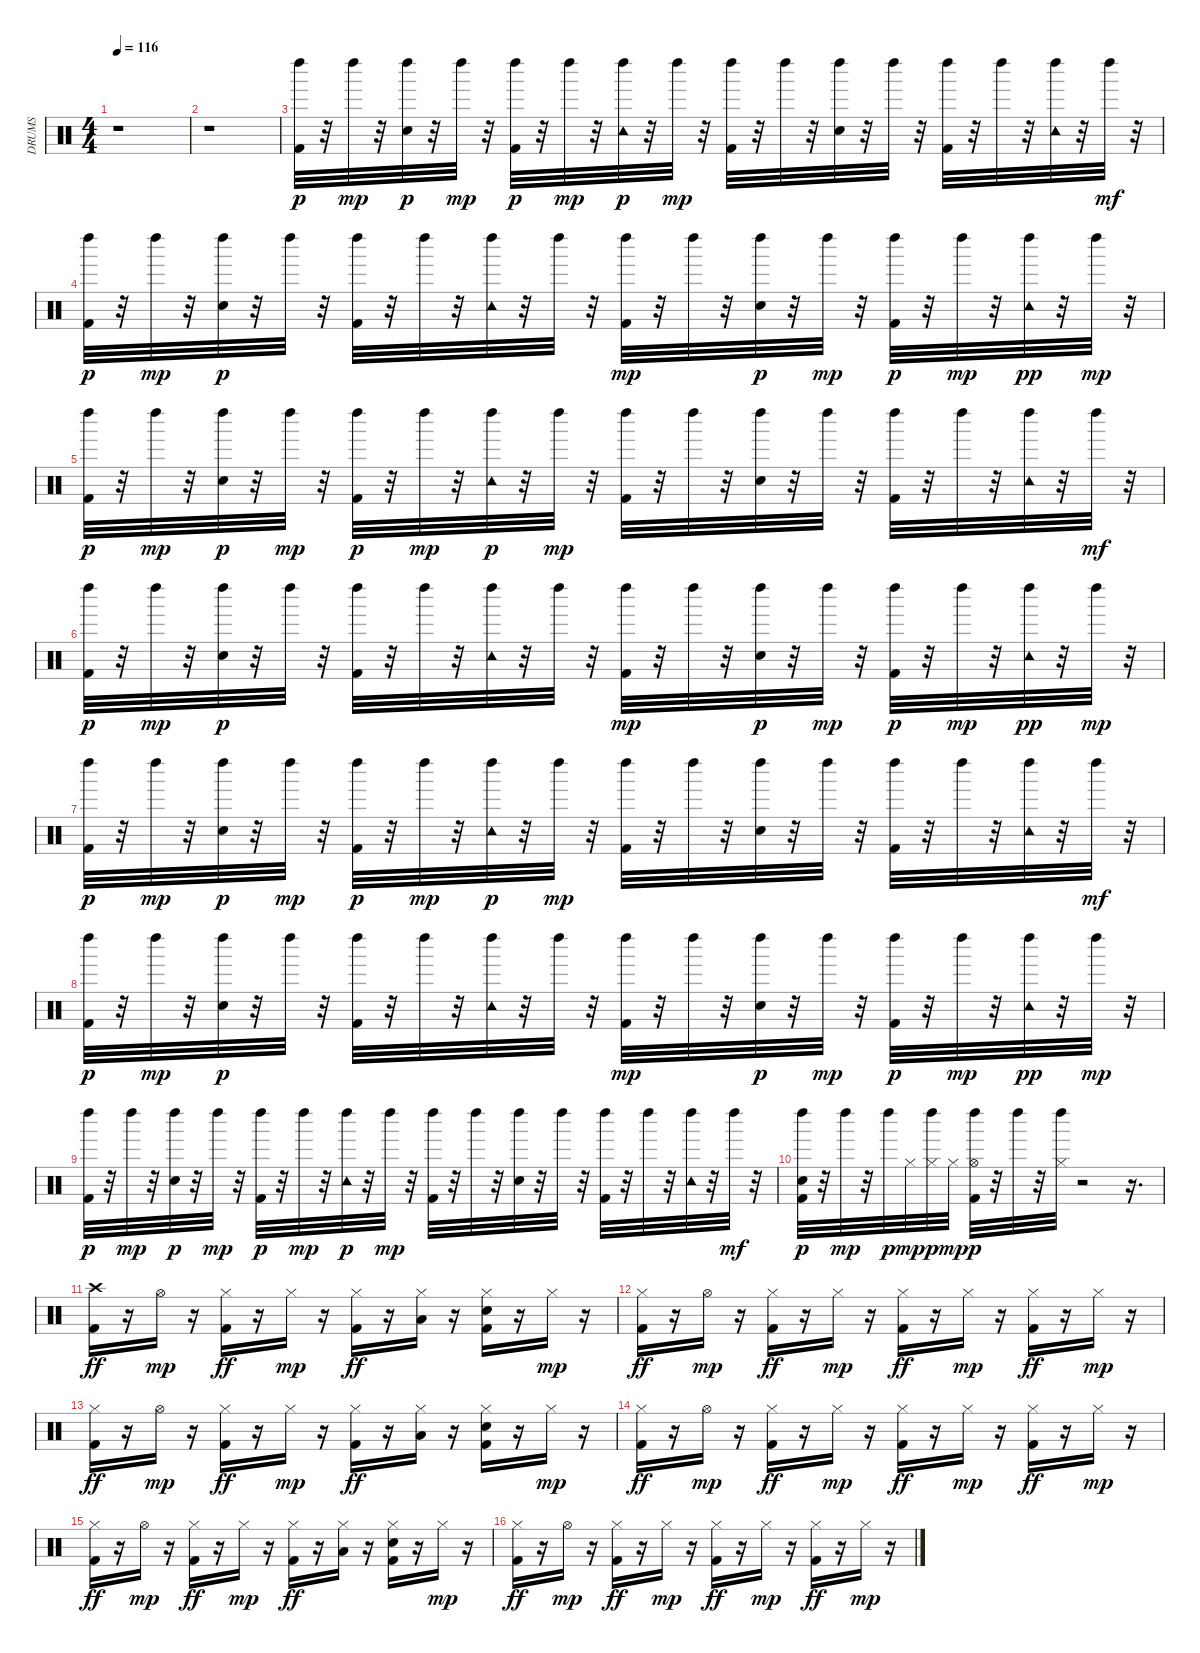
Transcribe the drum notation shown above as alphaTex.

\track ("DRUMS   " "DRUMS   ") {instrument percussion}
\staff {score}
\articulation defaults
\ts (4 4)
\tempo 116
\clef neutral
\ks c
r.1{dy p} |
r.1 |
("Kick (hit) 2" "Left Maraca (hit)").32 r.32 "Left Maraca (hit)".32{dy mp} r.32 ("Snare (hit) 2" "Left Maraca (hit)").32{dy p} r.32 "Left Maraca (hit)".32{dy mp} r.32 ("Kick (hit) 2" "Left Maraca (hit)").32{dy p} r.32 "Left Maraca (hit)".32{dy mp} r.32 ("Tambourine (hit)" "Left Maraca (hit)").32{dy p} r.32 "Left Maraca (hit)".32{dy mp} r.32 ("Kick (hit) 2" "Left Maraca (hit)").32 r.32 "Left Maraca (hit)".32 r.32 ("Snare (hit) 2" "Left Maraca (hit)").32 r.32 "Left Maraca (hit)".32 r.32 ("Kick (hit) 2" "Left Maraca (hit)").32 r.32 "Left Maraca (hit)".32 r.32 ("Tambourine (hit)" "Left Maraca (hit)").32 r.32 "Left Maraca (hit)".32{dy mf} r.32 |
("Kick (hit) 2" "Left Maraca (hit)").32{dy p} r.32 "Left Maraca (hit)".32{dy mp} r.32 ("Snare (hit) 2" "Left Maraca (hit)").32{dy p} r.32 "Left Maraca (hit)".32 r.32 ("Kick (hit) 2" "Left Maraca (hit)").32 r.32 "Left Maraca (hit)".32 r.32 ("Tambourine (hit)" "Left Maraca (hit)").32 r.32 "Left Maraca (hit)".32 r.32 ("Kick (hit) 2" "Left Maraca (hit)").32{dy mp} r.32 "Left Maraca (hit)".32 r.32 ("Snare (hit) 2" "Left Maraca (hit)").32{dy p} r.32 "Left Maraca (hit)".32{dy mp} r.32 ("Kick (hit) 2" "Left Maraca (hit)").32{dy p} r.32 "Left Maraca (hit)".32{dy mp} r.32 ("Tambourine (hit)" "Left Maraca (hit)").32{dy pp} r.32 "Left Maraca (hit)".32{dy mp} r.32 |
("Kick (hit) 2" "Left Maraca (hit)").32{dy p} r.32 "Left Maraca (hit)".32{dy mp} r.32 ("Snare (hit) 2" "Left Maraca (hit)").32{dy p} r.32 "Left Maraca (hit)".32{dy mp} r.32 ("Kick (hit) 2" "Left Maraca (hit)").32{dy p} r.32 "Left Maraca (hit)".32{dy mp} r.32 ("Tambourine (hit)" "Left Maraca (hit)").32{dy p} r.32 "Left Maraca (hit)".32{dy mp} r.32 ("Kick (hit) 2" "Left Maraca (hit)").32 r.32 "Left Maraca (hit)".32 r.32 ("Snare (hit) 2" "Left Maraca (hit)").32 r.32 "Left Maraca (hit)".32 r.32 ("Kick (hit) 2" "Left Maraca (hit)").32 r.32 "Left Maraca (hit)".32 r.32 ("Tambourine (hit)" "Left Maraca (hit)").32 r.32 "Left Maraca (hit)".32{dy mf} r.32 |
("Kick (hit) 2" "Left Maraca (hit)").32{dy p} r.32 "Left Maraca (hit)".32{dy mp} r.32 ("Snare (hit) 2" "Left Maraca (hit)").32{dy p} r.32 "Left Maraca (hit)".32 r.32 ("Kick (hit) 2" "Left Maraca (hit)").32 r.32 "Left Maraca (hit)".32 r.32 ("Tambourine (hit)" "Left Maraca (hit)").32 r.32 "Left Maraca (hit)".32 r.32 ("Kick (hit) 2" "Left Maraca (hit)").32{dy mp} r.32 "Left Maraca (hit)".32 r.32 ("Snare (hit) 2" "Left Maraca (hit)").32{dy p} r.32 "Left Maraca (hit)".32{dy mp} r.32 ("Kick (hit) 2" "Left Maraca (hit)").32{dy p} r.32 "Left Maraca (hit)".32{dy mp} r.32 ("Tambourine (hit)" "Left Maraca (hit)").32{dy pp} r.32 "Left Maraca (hit)".32{dy mp} r.32 |
("Kick (hit) 2" "Left Maraca (hit)").32{dy p} r.32 "Left Maraca (hit)".32{dy mp} r.32 ("Snare (hit) 2" "Left Maraca (hit)").32{dy p} r.32 "Left Maraca (hit)".32{dy mp} r.32 ("Kick (hit) 2" "Left Maraca (hit)").32{dy p} r.32 "Left Maraca (hit)".32{dy mp} r.32 ("Tambourine (hit)" "Left Maraca (hit)").32{dy p} r.32 "Left Maraca (hit)".32{dy mp} r.32 ("Kick (hit) 2" "Left Maraca (hit)").32 r.32 "Left Maraca (hit)".32 r.32 ("Snare (hit) 2" "Left Maraca (hit)").32 r.32 "Left Maraca (hit)".32 r.32 ("Kick (hit) 2" "Left Maraca (hit)").32 r.32 "Left Maraca (hit)".32 r.32 ("Tambourine (hit)" "Left Maraca (hit)").32 r.32 "Left Maraca (hit)".32{dy mf} r.32 |
("Kick (hit) 2" "Left Maraca (hit)").32{dy p} r.32 "Left Maraca (hit)".32{dy mp} r.32 ("Snare (hit) 2" "Left Maraca (hit)").32{dy p} r.32 "Left Maraca (hit)".32 r.32 ("Kick (hit) 2" "Left Maraca (hit)").32 r.32 "Left Maraca (hit)".32 r.32 ("Tambourine (hit)" "Left Maraca (hit)").32 r.32 "Left Maraca (hit)".32 r.32 ("Kick (hit) 2" "Left Maraca (hit)").32{dy mp} r.32 "Left Maraca (hit)".32 r.32 ("Snare (hit) 2" "Left Maraca (hit)").32{dy p} r.32 "Left Maraca (hit)".32{dy mp} r.32 ("Kick (hit) 2" "Left Maraca (hit)").32{dy p} r.32 "Left Maraca (hit)".32{dy mp} r.32 ("Tambourine (hit)" "Left Maraca (hit)").32{dy pp} r.32 "Left Maraca (hit)".32{dy mp} r.32 |
("Kick (hit) 2" "Left Maraca (hit)").32{dy p} r.32 "Left Maraca (hit)".32{dy mp} r.32 ("Snare (hit) 2" "Left Maraca (hit)").32{dy p} r.32 "Left Maraca (hit)".32{dy mp} r.32 ("Kick (hit) 2" "Left Maraca (hit)").32{dy p} r.32 "Left Maraca (hit)".32{dy mp} r.32 ("Tambourine (hit)" "Left Maraca (hit)").32{dy p} r.32 "Left Maraca (hit)".32{dy mp} r.32 ("Kick (hit) 2" "Left Maraca (hit)").32 r.32 "Left Maraca (hit)".32 r.32 ("Snare (hit) 2" "Left Maraca (hit)").32 r.32 "Left Maraca (hit)".32 r.32 ("Kick (hit) 2" "Left Maraca (hit)").32 r.32 "Left Maraca (hit)".32 r.32 ("Tambourine (hit)" "Left Maraca (hit)").32 r.32 "Left Maraca (hit)".32{dy mf} r.32 |
("Kick (hit) 2" "Snare (hit) 2" "Left Maraca (hit)").32{dy p} r.32 "Left Maraca (hit)".32{dy mp} r.32 "Left Maraca (hit)".32{dy p} "Hi-Hat (closed)".32{dy mp} ("Hi-Hat (closed)" "Left Maraca (hit)").32{dy p} "Hi-Hat (closed)".32{dy mp} ("Kick (hit) 2" "Hi-Hat (open)" "Left Maraca (hit)").32{dy p} r.32 "Left Maraca (hit)".32 r.32 ("Hi-Hat (closed)" "Left Maraca (hit)").32 r.2 r.16{d} |
("Kick (hit) 2" "Crash high (hit)").16{dy ff} r.16 "Hi-Hat (open)".16{dy mp} r.16 ("Hi-Hat (closed)" "Kick (hit) 2").16{dy ff} r.16 "Hi-Hat (closed)".16{dy mp} r.16 ("Hi-Hat (closed)" "Kick (hit) 2").16{dy ff} r.16 ("Hi-Hat (closed)" "Low Tom (hit)").16 r.16 ("Electric Snare (hit)" "Hi-Hat (closed)" "Kick (hit) 2").16 r.16 "Hi-Hat (closed)".16{dy mp} r.16 |
("Hi-Hat (closed)" "Kick (hit) 2").16{dy ff} r.16 "Hi-Hat (open)".16{dy mp} r.16 ("Hi-Hat (closed)" "Kick (hit) 2").16{dy ff} r.16 "Hi-Hat (closed)".16{dy mp} r.16 ("Hi-Hat (closed)" "Kick (hit) 2").16{dy ff} r.16 "Hi-Hat (closed)".16{dy mp} r.16 ("Hi-Hat (closed)" "Kick (hit) 2").16{dy ff} r.16 "Hi-Hat (closed)".16{dy mp} r.16 |
("Hi-Hat (closed)" "Kick (hit) 2").16{dy ff} r.16 "Hi-Hat (open)".16{dy mp} r.16 ("Hi-Hat (closed)" "Kick (hit) 2").16{dy ff} r.16 "Hi-Hat (closed)".16{dy mp} r.16 ("Hi-Hat (closed)" "Kick (hit) 2").16{dy ff} r.16 ("Hi-Hat (closed)" "Low Tom (hit)").16 r.16 ("Electric Snare (hit)" "Hi-Hat (closed)" "Kick (hit) 2").16 r.16 "Hi-Hat (closed)".16{dy mp} r.16 |
("Hi-Hat (closed)" "Kick (hit) 2").16{dy ff} r.16 "Hi-Hat (open)".16{dy mp} r.16 ("Hi-Hat (closed)" "Kick (hit) 2").16{dy ff} r.16 "Hi-Hat (closed)".16{dy mp} r.16 ("Hi-Hat (closed)" "Kick (hit) 2").16{dy ff} r.16 "Hi-Hat (closed)".16{dy mp} r.16 ("Hi-Hat (closed)" "Kick (hit) 2").16{dy ff} r.16 "Hi-Hat (closed)".16{dy mp} r.16 |
("Hi-Hat (closed)" "Kick (hit) 2").16{dy ff} r.16 "Hi-Hat (open)".16{dy mp} r.16 ("Hi-Hat (closed)" "Kick (hit) 2").16{dy ff} r.16 "Hi-Hat (closed)".16{dy mp} r.16 ("Hi-Hat (closed)" "Kick (hit) 2").16{dy ff} r.16 ("Hi-Hat (closed)" "Low Tom (hit)").16 r.16 ("Electric Snare (hit)" "Hi-Hat (closed)" "Kick (hit) 2").16 r.16 "Hi-Hat (closed)".16{dy mp} r.16 |
("Hi-Hat (closed)" "Kick (hit) 2").16{dy ff} r.16 "Hi-Hat (open)".16{dy mp} r.16 ("Hi-Hat (closed)" "Kick (hit) 2").16{dy ff} r.16 "Hi-Hat (closed)".16{dy mp} r.16 ("Hi-Hat (closed)" "Kick (hit) 2").16{dy ff} r.16 "Hi-Hat (closed)".16{dy mp} r.16 ("Hi-Hat (closed)" "Kick (hit) 2").16{dy ff} r.16 "Hi-Hat (closed)".16{dy mp} r.16
